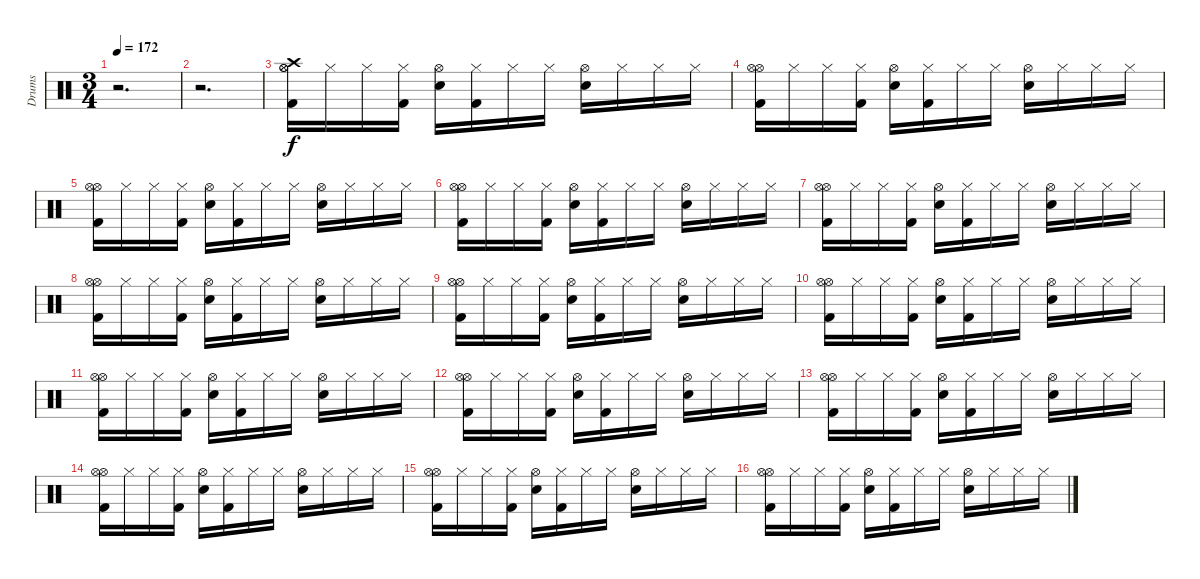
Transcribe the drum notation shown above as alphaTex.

\track ("Drums" "Drums") {instrument percussion}
\staff {score}
\articulation defaults
\ts (3 4)
\tempo 172
\clef neutral
\ks c
r.2{d dy f} |
r.2{d} |
("Kick (hit) 2" "Hi-Hat (open)" "Hi-Hat (open)" "Crash high (hit)").16 "Hi-Hat (closed)".16 "Hi-Hat (closed)".16 ("Hi-Hat (closed)" "Kick (hit) 2").16 ("Snare (hit) 2" "Hi-Hat (open)").16 ("Kick (hit) 2" "Hi-Hat (closed)").16 "Hi-Hat (closed)".16 "Hi-Hat (closed)".16 ("Hi-Hat (open)" "Snare (hit) 2").16 "Hi-Hat (closed)".16 "Hi-Hat (closed)".16 "Hi-Hat (closed)".16 |
("Kick (hit) 2" "Hi-Hat (open)" "Hi-Hat (open)").16 "Hi-Hat (closed)".16 "Hi-Hat (closed)".16 ("Hi-Hat (closed)" "Kick (hit) 2").16 ("Snare (hit) 2" "Hi-Hat (open)").16 ("Kick (hit) 2" "Hi-Hat (closed)").16 "Hi-Hat (closed)".16 "Hi-Hat (closed)".16 ("Hi-Hat (open)" "Snare (hit) 2").16 "Hi-Hat (closed)".16 "Hi-Hat (closed)".16 "Hi-Hat (closed)".16 |
("Kick (hit) 2" "Hi-Hat (open)" "Hi-Hat (open)").16 "Hi-Hat (closed)".16 "Hi-Hat (closed)".16 ("Hi-Hat (closed)" "Kick (hit) 2").16 ("Snare (hit) 2" "Hi-Hat (open)").16 ("Kick (hit) 2" "Hi-Hat (closed)").16 "Hi-Hat (closed)".16 "Hi-Hat (closed)".16 ("Hi-Hat (open)" "Snare (hit) 2").16 "Hi-Hat (closed)".16 "Hi-Hat (closed)".16 "Hi-Hat (closed)".16 |
("Kick (hit) 2" "Hi-Hat (open)" "Hi-Hat (open)").16 "Hi-Hat (closed)".16 "Hi-Hat (closed)".16 ("Hi-Hat (closed)" "Kick (hit) 2").16 ("Snare (hit) 2" "Hi-Hat (open)").16 ("Kick (hit) 2" "Hi-Hat (closed)").16 "Hi-Hat (closed)".16 "Hi-Hat (closed)".16 ("Hi-Hat (open)" "Snare (hit) 2").16 "Hi-Hat (closed)".16 "Hi-Hat (closed)".16 "Hi-Hat (closed)".16 |
("Kick (hit) 2" "Hi-Hat (open)" "Hi-Hat (open)").16 "Hi-Hat (closed)".16 "Hi-Hat (closed)".16 ("Hi-Hat (closed)" "Kick (hit) 2").16 ("Snare (hit) 2" "Hi-Hat (open)").16 ("Kick (hit) 2" "Hi-Hat (closed)").16 "Hi-Hat (closed)".16 "Hi-Hat (closed)".16 ("Hi-Hat (open)" "Snare (hit) 2").16 "Hi-Hat (closed)".16 "Hi-Hat (closed)".16 "Hi-Hat (closed)".16 |
("Kick (hit) 2" "Hi-Hat (open)" "Hi-Hat (open)").16 "Hi-Hat (closed)".16 "Hi-Hat (closed)".16 ("Hi-Hat (closed)" "Kick (hit) 2").16 ("Snare (hit) 2" "Hi-Hat (open)").16 ("Kick (hit) 2" "Hi-Hat (closed)").16 "Hi-Hat (closed)".16 "Hi-Hat (closed)".16 ("Hi-Hat (open)" "Snare (hit) 2").16 "Hi-Hat (closed)".16 "Hi-Hat (closed)".16 "Hi-Hat (closed)".16 |
("Kick (hit) 2" "Hi-Hat (open)" "Hi-Hat (open)").16 "Hi-Hat (closed)".16 "Hi-Hat (closed)".16 ("Hi-Hat (closed)" "Kick (hit) 2").16 ("Snare (hit) 2" "Hi-Hat (open)").16 ("Kick (hit) 2" "Hi-Hat (closed)").16 "Hi-Hat (closed)".16 "Hi-Hat (closed)".16 ("Hi-Hat (open)" "Snare (hit) 2").16 "Hi-Hat (closed)".16 "Hi-Hat (closed)".16 "Hi-Hat (closed)".16 |
("Kick (hit) 2" "Hi-Hat (open)" "Hi-Hat (open)").16 "Hi-Hat (closed)".16 "Hi-Hat (closed)".16 ("Hi-Hat (closed)" "Kick (hit) 2").16 ("Snare (hit) 2" "Hi-Hat (open)").16 ("Kick (hit) 2" "Hi-Hat (closed)").16 "Hi-Hat (closed)".16 "Hi-Hat (closed)".16 ("Hi-Hat (open)" "Snare (hit) 2").16 "Hi-Hat (closed)".16 "Hi-Hat (closed)".16 "Hi-Hat (closed)".16 |
("Kick (hit) 2" "Hi-Hat (open)" "Hi-Hat (open)").16 "Hi-Hat (closed)".16 "Hi-Hat (closed)".16 ("Hi-Hat (closed)" "Kick (hit) 2").16 ("Snare (hit) 2" "Hi-Hat (open)").16 ("Kick (hit) 2" "Hi-Hat (closed)").16 "Hi-Hat (closed)".16 "Hi-Hat (closed)".16 ("Hi-Hat (open)" "Snare (hit) 2").16 "Hi-Hat (closed)".16 "Hi-Hat (closed)".16 "Hi-Hat (closed)".16 |
("Kick (hit) 2" "Hi-Hat (open)" "Hi-Hat (open)").16 "Hi-Hat (closed)".16 "Hi-Hat (closed)".16 ("Hi-Hat (closed)" "Kick (hit) 2").16 ("Snare (hit) 2" "Hi-Hat (open)").16 ("Kick (hit) 2" "Hi-Hat (closed)").16 "Hi-Hat (closed)".16 "Hi-Hat (closed)".16 ("Hi-Hat (open)" "Snare (hit) 2").16 "Hi-Hat (closed)".16 "Hi-Hat (closed)".16 "Hi-Hat (closed)".16 |
("Kick (hit) 2" "Hi-Hat (open)" "Hi-Hat (open)").16 "Hi-Hat (closed)".16 "Hi-Hat (closed)".16 ("Hi-Hat (closed)" "Kick (hit) 2").16 ("Snare (hit) 2" "Hi-Hat (open)").16 ("Kick (hit) 2" "Hi-Hat (closed)").16 "Hi-Hat (closed)".16 "Hi-Hat (closed)".16 ("Hi-Hat (open)" "Snare (hit) 2").16 "Hi-Hat (closed)".16 "Hi-Hat (closed)".16 "Hi-Hat (closed)".16 |
("Kick (hit) 2" "Hi-Hat (open)" "Hi-Hat (open)").16 "Hi-Hat (closed)".16 "Hi-Hat (closed)".16 ("Hi-Hat (closed)" "Kick (hit) 2").16 ("Snare (hit) 2" "Hi-Hat (open)").16 ("Kick (hit) 2" "Hi-Hat (closed)").16 "Hi-Hat (closed)".16 "Hi-Hat (closed)".16 ("Hi-Hat (open)" "Snare (hit) 2").16 "Hi-Hat (closed)".16 "Hi-Hat (closed)".16 "Hi-Hat (closed)".16 |
("Kick (hit) 2" "Hi-Hat (open)" "Hi-Hat (open)").16 "Hi-Hat (closed)".16 "Hi-Hat (closed)".16 ("Hi-Hat (closed)" "Kick (hit) 2").16 ("Snare (hit) 2" "Hi-Hat (open)").16 ("Kick (hit) 2" "Hi-Hat (closed)").16 "Hi-Hat (closed)".16 "Hi-Hat (closed)".16 ("Hi-Hat (open)" "Snare (hit) 2").16 "Hi-Hat (closed)".16 "Hi-Hat (closed)".16 "Hi-Hat (closed)".16 |
("Kick (hit) 2" "Hi-Hat (open)" "Hi-Hat (open)").16 "Hi-Hat (closed)".16 "Hi-Hat (closed)".16 ("Hi-Hat (closed)" "Kick (hit) 2").16 ("Snare (hit) 2" "Hi-Hat (open)").16 ("Kick (hit) 2" "Hi-Hat (closed)").16 "Hi-Hat (closed)".16 "Hi-Hat (closed)".16 ("Hi-Hat (open)" "Snare (hit) 2").16 "Hi-Hat (closed)".16 "Hi-Hat (closed)".16 "Hi-Hat (closed)".16
